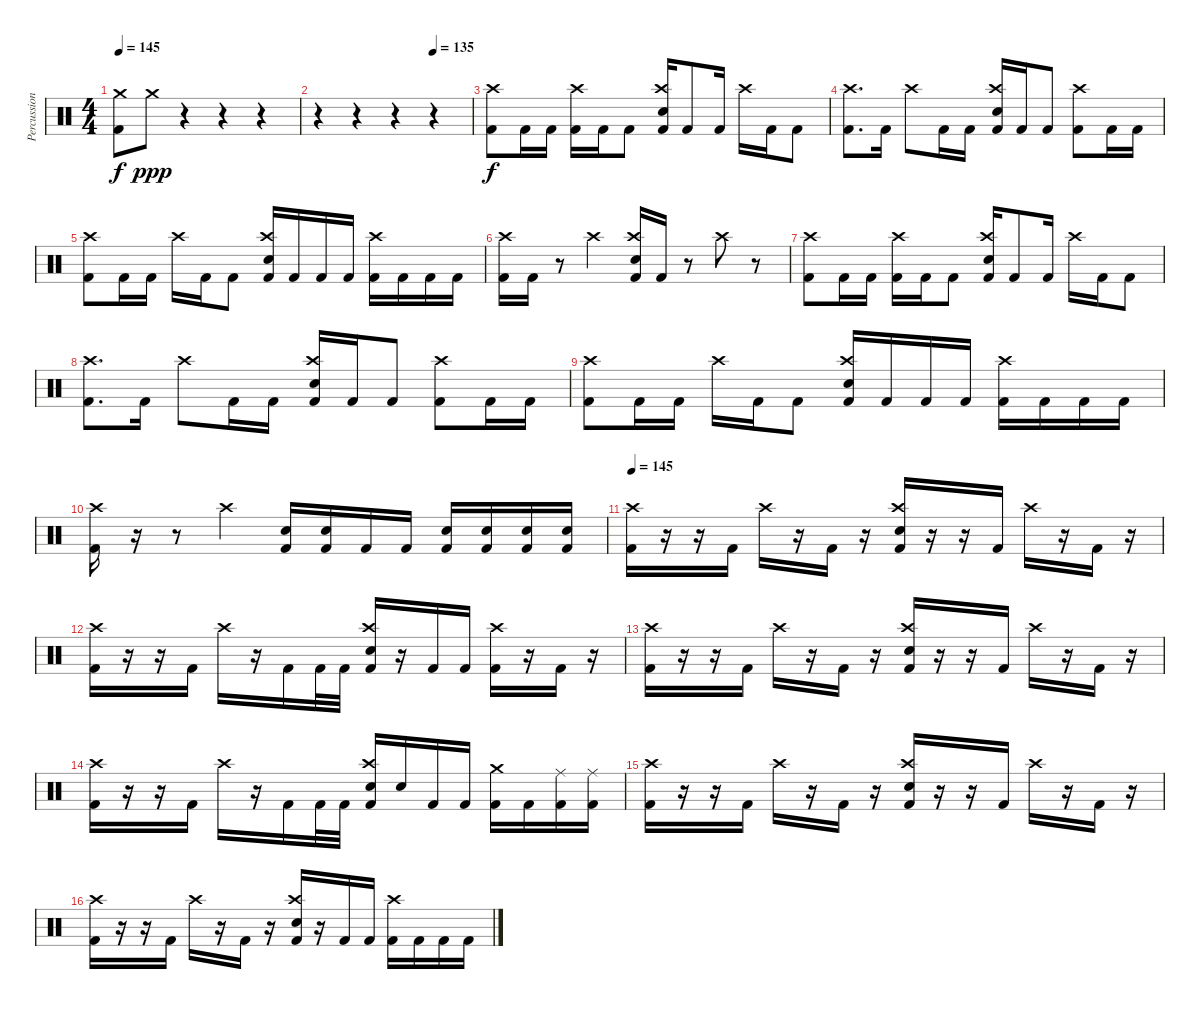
\track ("Percussion" "Percussion") {instrument percussion}
\staff {score}
\articulation defaults
\ts (4 4)
\tempo 145
\clef neutral
\ks c
("Crash medium (hit)" "Kick (hit) 2").8{dy f} "Crash medium (hit)".8{dy ppp} r.4 r.4 r.4 |
\tempo (135 0.75)
r.4 r.4 r.4 r.4 |
("Crash high (hit)" "Kick (hit) 2").8{dy f} "Kick (hit) 2".16 "Kick (hit) 2".16 ("Crash high (hit)" "Kick (hit) 2").16 "Kick (hit) 2".16 "Kick (hit) 2".8 ("Crash high (hit)" "Electric Snare (hit)" "Kick (hit) 2").16 "Kick (hit) 2".8 "Kick (hit) 2".16 "Crash high (hit)".16 "Kick (hit) 2".16 "Kick (hit) 2".8 |
("Crash high (hit)" "Kick (hit) 2").8{d} "Kick (hit) 2".16 "Crash high (hit)".8 "Kick (hit) 2".16 "Kick (hit) 2".16 ("Crash high (hit)" "Electric Snare (hit)" "Kick (hit) 2").16 "Kick (hit) 2".16 "Kick (hit) 2".8 ("Crash high (hit)" "Kick (hit) 2").8 "Kick (hit) 2".16 "Kick (hit) 2".16 |
("Crash high (hit)" "Kick (hit) 2").8 "Kick (hit) 2".16 "Kick (hit) 2".16 "Crash high (hit)".16 "Kick (hit) 2".16 "Kick (hit) 2".8 ("Crash high (hit)" "Electric Snare (hit)" "Kick (hit) 2").16 "Kick (hit) 2".16 "Kick (hit) 2".16 "Kick (hit) 2".16 ("Crash high (hit)" "Kick (hit) 2").16 "Kick (hit) 2".16 "Kick (hit) 2".16 "Kick (hit) 2".16 |
("Crash high (hit)" "Kick (hit) 2").16 "Kick (hit) 2".16 r.8 "Crash high (hit)".4 ("Crash high (hit)" "Electric Snare (hit)" "Kick (hit) 2").16 "Kick (hit) 2".16 r.8 "Crash high (hit)".8 r.8 |
("Crash high (hit)" "Kick (hit) 2").8 "Kick (hit) 2".16 "Kick (hit) 2".16 ("Crash high (hit)" "Kick (hit) 2").16 "Kick (hit) 2".16 "Kick (hit) 2".8 ("Crash high (hit)" "Electric Snare (hit)" "Kick (hit) 2").16 "Kick (hit) 2".8 "Kick (hit) 2".16 "Crash high (hit)".16 "Kick (hit) 2".16 "Kick (hit) 2".8 |
("Crash high (hit)" "Kick (hit) 2").8{d} "Kick (hit) 2".16 "Crash high (hit)".8 "Kick (hit) 2".16 "Kick (hit) 2".16 ("Crash high (hit)" "Electric Snare (hit)" "Kick (hit) 2").16 "Kick (hit) 2".16 "Kick (hit) 2".8 ("Crash high (hit)" "Kick (hit) 2").8 "Kick (hit) 2".16 "Kick (hit) 2".16 |
("Crash high (hit)" "Kick (hit) 2").8 "Kick (hit) 2".16 "Kick (hit) 2".16 "Crash high (hit)".16 "Kick (hit) 2".16 "Kick (hit) 2".8 ("Crash high (hit)" "Electric Snare (hit)" "Kick (hit) 2").16 "Kick (hit) 2".16 "Kick (hit) 2".16 "Kick (hit) 2".16 ("Crash high (hit)" "Kick (hit) 2").16 "Kick (hit) 2".16 "Kick (hit) 2".16 "Kick (hit) 2".16 |
("Crash high (hit)" "Kick (hit) 2").16 r.16 r.8 "Crash high (hit)".4 ("Electric Snare (hit)" "Kick (hit) 2").16 ("Electric Snare (hit)" "Kick (hit) 2").16 "Kick (hit) 2".16 "Kick (hit) 2".16 ("Electric Snare (hit)" "Kick (hit) 2").16 ("Electric Snare (hit)" "Kick (hit) 2").16 ("Electric Snare (hit)" "Kick (hit) 2").16 ("Electric Snare (hit)" "Kick (hit) 2").16 |
\tempo 145
("Crash high (hit)" "Kick (hit) 2").16 r.16 r.16 "Kick (hit) 2".16 "Crash high (hit)".16 r.16 "Kick (hit) 2".16 r.16 ("Crash high (hit)" "Electric Snare (hit)" "Kick (hit) 2").16 r.16 r.16 "Kick (hit) 2".16 "Crash high (hit)".16 r.16 "Kick (hit) 2".16 r.16 |
("Crash high (hit)" "Kick (hit) 2").16 r.16 r.16 "Kick (hit) 2".16 "Crash high (hit)".16 r.16 "Kick (hit) 2".16 "Kick (hit) 2".32 "Kick (hit) 2".32 ("Crash high (hit)" "Electric Snare (hit)" "Kick (hit) 2").16 r.16 "Kick (hit) 2".16 "Kick (hit) 2".16 ("Crash high (hit)" "Kick (hit) 2").16 r.16 "Kick (hit) 2".16 r.16 |
("Crash high (hit)" "Kick (hit) 2").16 r.16 r.16 "Kick (hit) 2".16 "Crash high (hit)".16 r.16 "Kick (hit) 2".16 r.16 ("Crash high (hit)" "Electric Snare (hit)" "Kick (hit) 2").16 r.16 r.16 "Kick (hit) 2".16 "Crash high (hit)".16 r.16 "Kick (hit) 2".16 r.16 |
("Crash high (hit)" "Kick (hit) 2").16 r.16 r.16 "Kick (hit) 2".16 "Crash high (hit)".16 r.16 "Kick (hit) 2".16 "Kick (hit) 2".32 "Kick (hit) 2".32 ("Crash high (hit)" "Electric Snare (hit)" "Kick (hit) 2").16 "Electric Snare (hit)".16 "Kick (hit) 2".16 "Kick (hit) 2".16 ("Crash medium (hit)" "Kick (hit) 2").16 "Kick (hit) 2".16 ("Ride (middle)" "Kick (hit) 2").16 ("Ride (middle)" "Kick (hit) 2").16 |
("Crash high (hit)" "Kick (hit) 2").16 r.16 r.16 "Kick (hit) 2".16 "Crash high (hit)".16 r.16 "Kick (hit) 2".16 r.16 ("Crash high (hit)" "Electric Snare (hit)" "Kick (hit) 2").16 r.16 r.16 "Kick (hit) 2".16 "Crash high (hit)".16 r.16 "Kick (hit) 2".16 r.16 |
("Crash high (hit)" "Kick (hit) 2").16 r.16 r.16 "Kick (hit) 2".16 "Crash high (hit)".16 r.16 "Kick (hit) 2".16 r.16 ("Crash high (hit)" "Electric Snare (hit)" "Kick (hit) 2").16 r.16 "Kick (hit) 2".16 "Kick (hit) 2".16 ("Crash high (hit)" "Kick (hit) 2").16 "Kick (hit) 2".16 "Kick (hit) 2".16 "Kick (hit) 2".16
